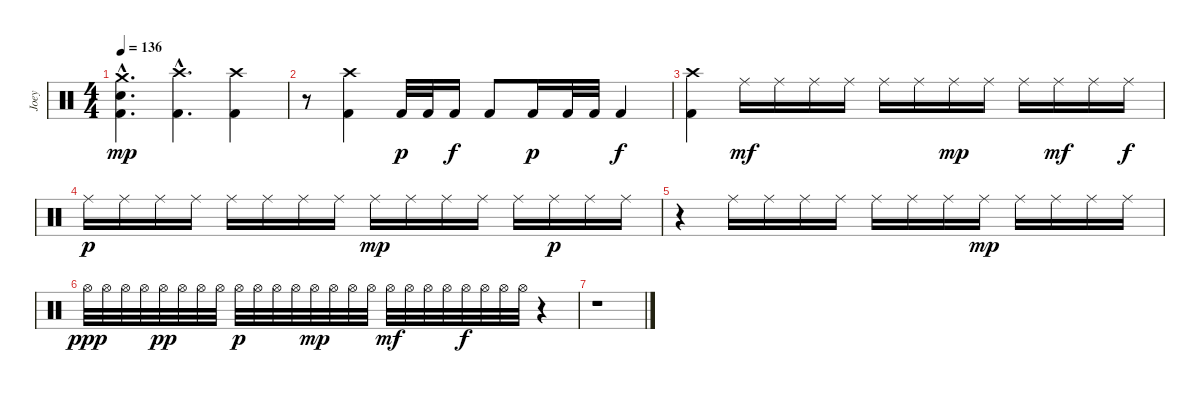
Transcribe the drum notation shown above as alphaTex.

\track ("Joey" "Joey") {instrument percussion}
\staff {score}
\articulation defaults
\ts (4 4)
\tempo 136
\clef neutral
\ks c
("Crash medium (hit)"{hac} "Electric Snare (hit)"{hac} "Kick (hit) 2"{hac}).4{d dy mp} ("Crash high (hit)"{hac} "Kick (hit) 2"{hac}).4{d} ("Crash high (hit)" "Kick (hit) 2").4 |
r.8 ("Crash high (hit)" "Kick (hit) 2").4 "Kick (hit) 2".32{dy p} "Kick (hit) 2".32 "Kick (hit) 2".16{dy f} "Kick (hit) 2".8 "Kick (hit) 2".16{dy p} "Kick (hit) 2".32 "Kick (hit) 2".32 "Kick (hit) 2".4{dy f} |
("Crash high (hit)" "Kick (hit) 2").4 "Ride (middle)".16{dy mf} "Ride (middle)".16 "Ride (middle)".16 "Ride (middle)".16 "Ride (middle)".16 "Ride (middle)".16 "Ride (middle)".16{dy mp} "Ride (middle)".16 "Ride (middle)".16 "Ride (middle)".16{dy mf} "Ride (middle)".16 "Ride (middle)".16{dy f} |
"Ride (middle)".16{dy p} "Ride (middle)".16 "Ride (middle)".16 "Ride (middle)".16 "Ride (middle)".16 "Ride (middle)".16 "Ride (middle)".16 "Ride (middle)".16 "Ride (middle)".16{dy mp} "Ride (middle)".16 "Ride (middle)".16 "Ride (middle)".16 "Ride (middle)".16 "Ride (middle)".16{dy p} "Ride (middle)".16 "Ride (middle)".16 |
r.4 "Ride (middle)".16 "Ride (middle)".16 "Ride (middle)".16 "Ride (middle)".16 "Ride (middle)".16 "Ride (middle)".16 "Ride (middle)".16 "Ride (middle)".16{dy mp} "Ride (middle)".16 "Ride (middle)".16 "Ride (middle)".16 "Ride (middle)".16 |
"Hi-Hat (open)".32{dy ppp} "Hi-Hat (open)".32 "Hi-Hat (open)".32 "Hi-Hat (open)".32 "Hi-Hat (open)".32{dy pp} "Hi-Hat (open)".32 "Hi-Hat (open)".32 "Hi-Hat (open)".32 "Hi-Hat (open)".32{dy p} "Hi-Hat (open)".32 "Hi-Hat (open)".32 "Hi-Hat (open)".32 "Hi-Hat (open)".32{dy mp} "Hi-Hat (open)".32 "Hi-Hat (open)".32 "Hi-Hat (open)".32 "Hi-Hat (open)".32{dy mf} "Hi-Hat (open)".32 "Hi-Hat (open)".32 "Hi-Hat (open)".32 "Hi-Hat (open)".32{dy f} "Hi-Hat (open)".32 "Hi-Hat (open)".32 "Hi-Hat (open)".32 r.4 |
r.1
